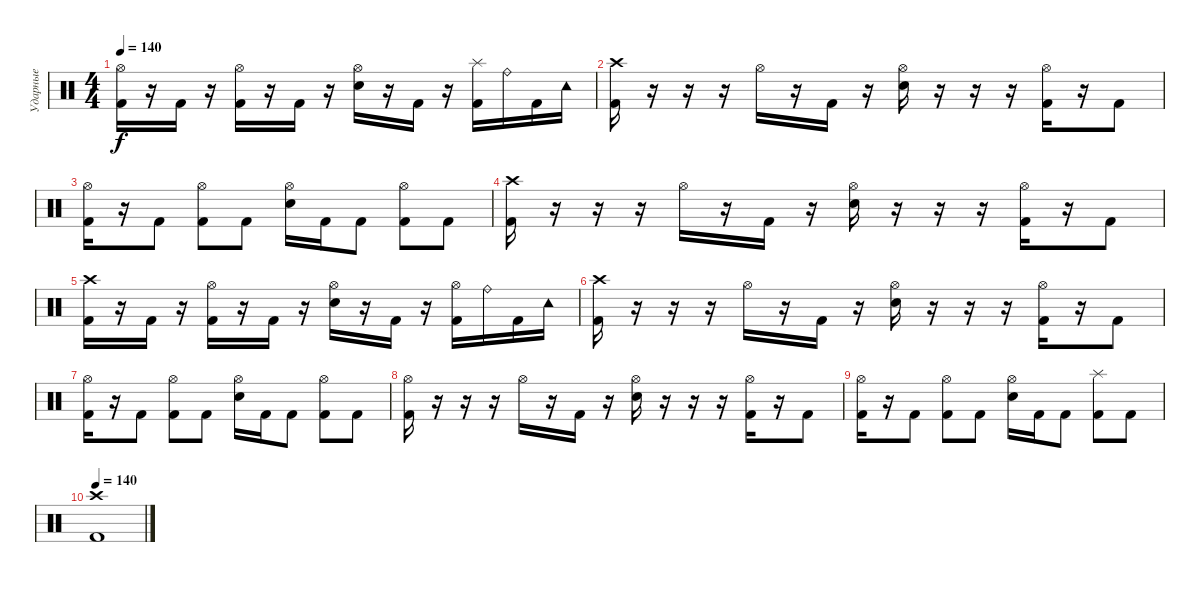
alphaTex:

\track ("Ударные" "Ударные") {instrument percussion}
\staff {score}
\articulation defaults
\ts (4 4)
\tempo 140
\clef neutral
\ks c
("Hi-Hat (open)" "Kick (hit) 2").16{dy f} r.16 "Kick (hit) 2".16 r.16 ("Hi-Hat (open)" "Kick (hit) 2").16 r.16 "Kick (hit) 2".16 r.16 ("Hi-Hat (open)" "Electric Snare (hit)").16 r.16 "Kick (hit) 2".16 r.16 ("Splash (hit)" "Kick (hit) 2").16 "Ride (bell)".16 "Kick (hit) 2".16 "Tambourine (hit)".16 |
("Crash high (hit)" "Kick (hit) 2").16 r.16 r.16 r.16 "Hi-Hat (open)".16 r.16 "Kick (hit) 2".16 r.16 ("Hi-Hat (open)" "Electric Snare (hit)").16 r.16 r.16 r.16 ("Hi-Hat (open)" "Kick (hit) 2").16 r.16 "Kick (hit) 2".8 |
("Hi-Hat (open)" "Kick (hit) 2").16 r.16 "Kick (hit) 2".8 ("Hi-Hat (open)" "Kick (hit) 2").8 "Kick (hit) 2".8 ("Hi-Hat (open)" "Electric Snare (hit)").16 "Kick (hit) 2".16 "Kick (hit) 2".8 ("Hi-Hat (open)" "Kick (hit) 2").8 "Kick (hit) 2".8 |
("Crash high (hit)" "Kick (hit) 2").16 r.16 r.16 r.16 "Hi-Hat (open)".16 r.16 "Kick (hit) 2".16 r.16 ("Hi-Hat (open)" "Electric Snare (hit)").16 r.16 r.16 r.16 ("Hi-Hat (open)" "Kick (hit) 2").16 r.16 "Kick (hit) 2".8 |
("Crash high (hit)" "Kick (hit) 2").16 r.16 "Kick (hit) 2".16 r.16 ("Hi-Hat (open)" "Kick (hit) 2").16 r.16 "Kick (hit) 2".16 r.16 ("Hi-Hat (open)" "Electric Snare (hit)").16 r.16 "Kick (hit) 2".16 r.16 ("Hi-Hat (open)" "Kick (hit) 2").16 "Ride (bell)".16 "Kick (hit) 2".16 "Tambourine (hit)".16 |
("Crash high (hit)" "Kick (hit) 2").16 r.16 r.16 r.16 "Hi-Hat (open)".16 r.16 "Kick (hit) 2".16 r.16 ("Hi-Hat (open)" "Electric Snare (hit)").16 r.16 r.16 r.16 ("Hi-Hat (open)" "Kick (hit) 2").16 r.16 "Kick (hit) 2".8 |
("Hi-Hat (open)" "Kick (hit) 2").16 r.16 "Kick (hit) 2".8 ("Hi-Hat (open)" "Kick (hit) 2").8 "Kick (hit) 2".8 ("Hi-Hat (open)" "Electric Snare (hit)").16 "Kick (hit) 2".16 "Kick (hit) 2".8 ("Hi-Hat (open)" "Kick (hit) 2").8 "Kick (hit) 2".8 |
("Hi-Hat (open)" "Kick (hit) 2").16 r.16 r.16 r.16 "Hi-Hat (open)".16 r.16 "Kick (hit) 2".16 r.16 ("Hi-Hat (open)" "Electric Snare (hit)").16 r.16 r.16 r.16 ("Hi-Hat (open)" "Kick (hit) 2").16 r.16 "Kick (hit) 2".8 |
("Hi-Hat (open)" "Kick (hit) 2").16 r.16 "Kick (hit) 2".8 ("Hi-Hat (open)" "Kick (hit) 2").8 "Kick (hit) 2".8 ("Hi-Hat (open)" "Electric Snare (hit)").16 "Kick (hit) 2".16 "Kick (hit) 2".8 ("Splash (hit)" "Kick (hit) 2").8 "Kick (hit) 2".8 |
\tempo 140
("Crash high (hit)" "Kick (hit) 2").1
